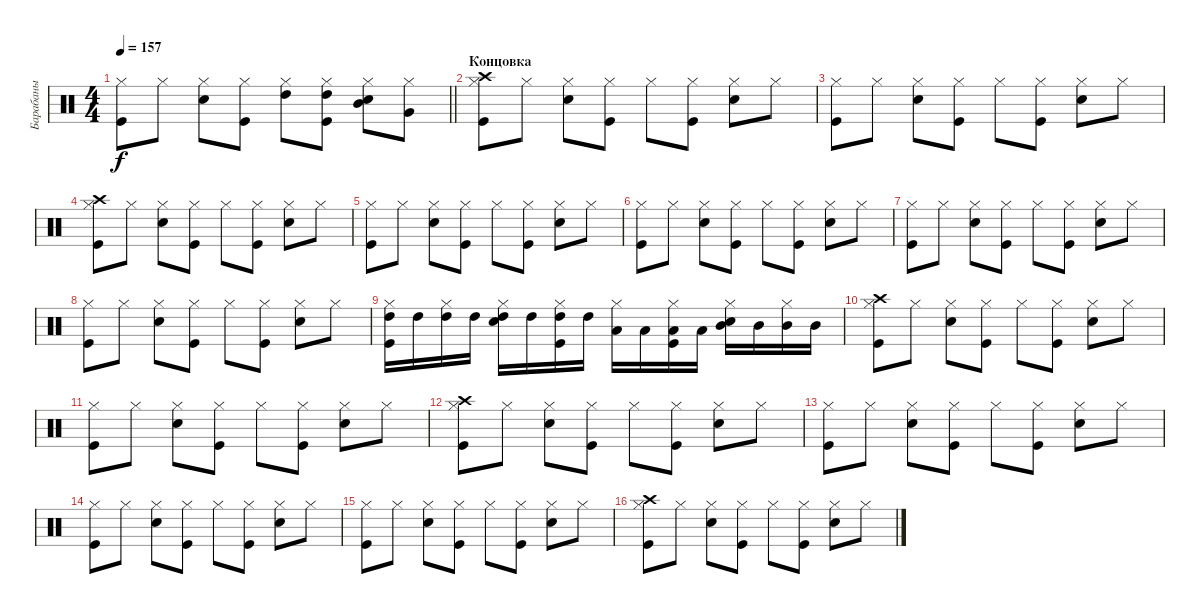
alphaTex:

\track ("Барабаны" "Барабаны") {instrument percussion}
\staff {score}
\articulation defaults
\ts (4 4)
\tempo 157
\clef neutral
\barLineRight lightlight
\ks c
("Kick (hit)" "Hi-Hat (closed)").8{dy f} "Hi-Hat (closed)".8 ("Snare (hit) 2" "Hi-Hat (closed)").8 ("Kick (hit)" "Hi-Hat (closed)").8 ("Hi-Hat (closed)" "High Tom (hit)").8 ("Kick (hit)" "Hi-Hat (closed)" "High Tom (hit)").8 ("Snare (hit) 2" "Hi-Hat (closed)" "Mid Tom (hit)").8 ("Hi-Hat (closed)" "Very Low Tom (hit)").8 |
\section ("" "Концовка")
("Kick (hit)" "Hi-Hat (closed)" "Crash high (hit)").8 "Hi-Hat (closed)".8 ("Snare (hit) 2" "Hi-Hat (closed)").8 ("Kick (hit)" "Hi-Hat (closed)").8 "Hi-Hat (closed)".8 ("Kick (hit)" "Hi-Hat (closed)").8 ("Snare (hit) 2" "Hi-Hat (closed)").8 "Hi-Hat (closed)".8 |
("Kick (hit)" "Hi-Hat (closed)").8 "Hi-Hat (closed)".8 ("Snare (hit) 2" "Hi-Hat (closed)").8 ("Kick (hit)" "Hi-Hat (closed)").8 "Hi-Hat (closed)".8 ("Kick (hit)" "Hi-Hat (closed)").8 ("Snare (hit) 2" "Hi-Hat (closed)").8 "Hi-Hat (closed)".8 |
("Kick (hit)" "Hi-Hat (closed)" "Crash high (hit)").8 "Hi-Hat (closed)".8 ("Snare (hit) 2" "Hi-Hat (closed)").8 ("Kick (hit)" "Hi-Hat (closed)").8 "Hi-Hat (closed)".8 ("Kick (hit)" "Hi-Hat (closed)").8 ("Snare (hit) 2" "Hi-Hat (closed)").8 "Hi-Hat (closed)".8 |
("Kick (hit)" "Hi-Hat (closed)").8 "Hi-Hat (closed)".8 ("Snare (hit) 2" "Hi-Hat (closed)").8 ("Kick (hit)" "Hi-Hat (closed)").8 "Hi-Hat (closed)".8 ("Kick (hit)" "Hi-Hat (closed)").8 ("Snare (hit) 2" "Hi-Hat (closed)").8 "Hi-Hat (closed)".8 |
("Kick (hit)" "Hi-Hat (closed)").8 "Hi-Hat (closed)".8 ("Snare (hit) 2" "Hi-Hat (closed)").8 ("Kick (hit)" "Hi-Hat (closed)").8 "Hi-Hat (closed)".8 ("Kick (hit)" "Hi-Hat (closed)").8 ("Snare (hit) 2" "Hi-Hat (closed)").8 "Hi-Hat (closed)".8 |
("Kick (hit)" "Hi-Hat (closed)").8 "Hi-Hat (closed)".8 ("Snare (hit) 2" "Hi-Hat (closed)").8 ("Kick (hit)" "Hi-Hat (closed)").8 "Hi-Hat (closed)".8 ("Kick (hit)" "Hi-Hat (closed)").8 ("Snare (hit) 2" "Hi-Hat (closed)").8 "Hi-Hat (closed)".8 |
("Kick (hit)" "Hi-Hat (closed)").8 "Hi-Hat (closed)".8 ("Snare (hit) 2" "Hi-Hat (closed)").8 ("Kick (hit)" "Hi-Hat (closed)").8 "Hi-Hat (closed)".8 ("Kick (hit)" "Hi-Hat (closed)").8 ("Snare (hit) 2" "Hi-Hat (closed)").8 "Hi-Hat (closed)".8 |
("Kick (hit)" "Hi-Hat (closed)" "High Tom (hit)").16 "High Tom (hit)".16 ("Hi-Hat (closed)" "High Tom (hit)").16 "High Tom (hit)".16 ("Snare (hit) 2" "Hi-Hat (closed)" "High Tom (hit)").16 "High Tom (hit)".16 ("Kick (hit)" "Hi-Hat (closed)" "High Tom (hit)").16 "High Tom (hit)".16 ("Hi-Hat (closed)" "Low Tom (hit)").16 "Low Tom (hit)".16 ("Kick (hit)" "Hi-Hat (closed)" "Low Tom (hit)").16 "Low Tom (hit)".16 ("Snare (hit) 2" "Hi-Hat (closed)" "Mid Tom (hit)").16 "Mid Tom (hit)".16 ("Hi-Hat (closed)" "Mid Tom (hit)").16 "Mid Tom (hit)".16 |
("Kick (hit)" "Hi-Hat (closed)" "Crash high (hit)").8 "Hi-Hat (closed)".8 ("Snare (hit) 2" "Hi-Hat (closed)").8 ("Kick (hit)" "Hi-Hat (closed)").8 "Hi-Hat (closed)".8 ("Kick (hit)" "Hi-Hat (closed)").8 ("Snare (hit) 2" "Hi-Hat (closed)").8 "Hi-Hat (closed)".8 |
("Kick (hit)" "Hi-Hat (closed)").8 "Hi-Hat (closed)".8 ("Snare (hit) 2" "Hi-Hat (closed)").8 ("Kick (hit)" "Hi-Hat (closed)").8 "Hi-Hat (closed)".8 ("Kick (hit)" "Hi-Hat (closed)").8 ("Snare (hit) 2" "Hi-Hat (closed)").8 "Hi-Hat (closed)".8 |
("Kick (hit)" "Hi-Hat (closed)" "Crash high (hit)").8 "Hi-Hat (closed)".8 ("Snare (hit) 2" "Hi-Hat (closed)").8 ("Kick (hit)" "Hi-Hat (closed)").8 "Hi-Hat (closed)".8 ("Kick (hit)" "Hi-Hat (closed)").8 ("Snare (hit) 2" "Hi-Hat (closed)").8 "Hi-Hat (closed)".8 |
("Kick (hit)" "Hi-Hat (closed)").8 "Hi-Hat (closed)".8 ("Snare (hit) 2" "Hi-Hat (closed)").8 ("Kick (hit)" "Hi-Hat (closed)").8 "Hi-Hat (closed)".8 ("Kick (hit)" "Hi-Hat (closed)").8 ("Snare (hit) 2" "Hi-Hat (closed)").8 "Hi-Hat (closed)".8 |
("Kick (hit)" "Hi-Hat (closed)").8 "Hi-Hat (closed)".8 ("Snare (hit) 2" "Hi-Hat (closed)").8 ("Kick (hit)" "Hi-Hat (closed)").8 "Hi-Hat (closed)".8 ("Kick (hit)" "Hi-Hat (closed)").8 ("Snare (hit) 2" "Hi-Hat (closed)").8 "Hi-Hat (closed)".8 |
("Kick (hit)" "Hi-Hat (closed)").8 "Hi-Hat (closed)".8 ("Snare (hit) 2" "Hi-Hat (closed)").8 ("Kick (hit)" "Hi-Hat (closed)").8 "Hi-Hat (closed)".8 ("Kick (hit)" "Hi-Hat (closed)").8 ("Snare (hit) 2" "Hi-Hat (closed)").8 "Hi-Hat (closed)".8 |
("Kick (hit)" "Hi-Hat (closed)" "Crash high (hit)").8 "Hi-Hat (closed)".8 ("Snare (hit) 2" "Hi-Hat (closed)").8 ("Kick (hit)" "Hi-Hat (closed)").8 "Hi-Hat (closed)".8 ("Kick (hit)" "Hi-Hat (closed)").8 ("Snare (hit) 2" "Hi-Hat (closed)").8 "Hi-Hat (closed)".8
